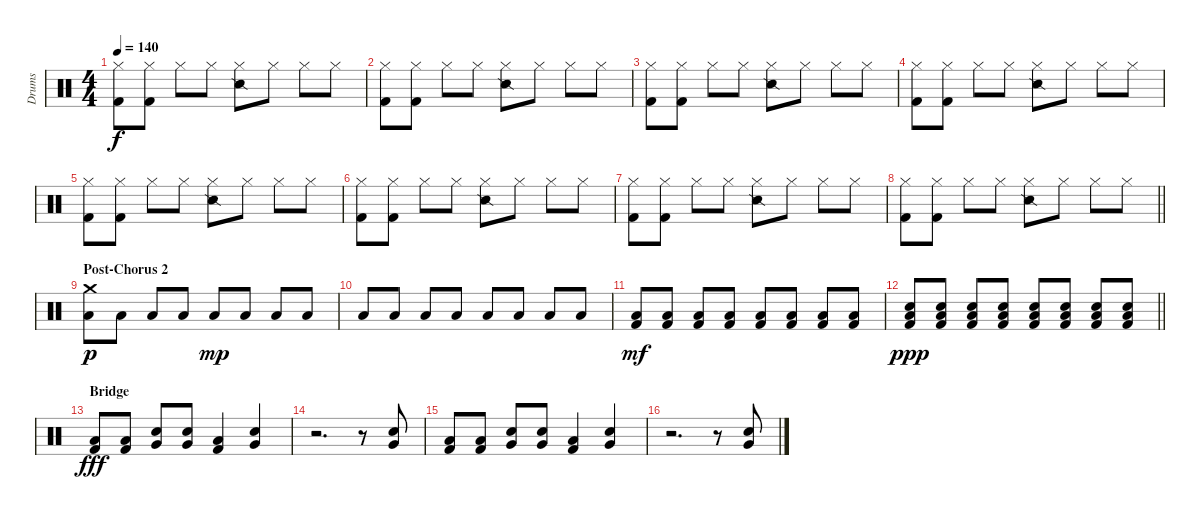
\track ("Drums" "Drums") {instrument percussion}
\staff {score}
\articulation defaults
\ts (4 4)
\tempo 140
\clef neutral
\ks c
("Hi-Hat (closed)" "Kick (hit) 2").8{dy f} ("Hi-Hat (closed)" "Kick (hit) 2").8 "Hi-Hat (closed)".8 "Hi-Hat (closed)".8 ("Hi-Hat (closed)" "Snare (side stick) 2").8 "Hi-Hat (closed)".8 "Hi-Hat (closed)".8 "Hi-Hat (closed)".8 |
("Hi-Hat (closed)" "Kick (hit) 2").8 ("Hi-Hat (closed)" "Kick (hit) 2").8 "Hi-Hat (closed)".8 "Hi-Hat (closed)".8 ("Hi-Hat (closed)" "Snare (side stick) 2").8 "Hi-Hat (closed)".8 "Hi-Hat (closed)".8 "Hi-Hat (closed)".8 |
("Hi-Hat (closed)" "Kick (hit) 2").8 ("Hi-Hat (closed)" "Kick (hit) 2").8 "Hi-Hat (closed)".8 "Hi-Hat (closed)".8 ("Hi-Hat (closed)" "Snare (side stick) 2").8 "Hi-Hat (closed)".8 "Hi-Hat (closed)".8 "Hi-Hat (closed)".8 |
("Hi-Hat (closed)" "Kick (hit) 2").8 ("Hi-Hat (closed)" "Kick (hit) 2").8 "Hi-Hat (closed)".8 "Hi-Hat (closed)".8 ("Hi-Hat (closed)" "Snare (side stick) 2").8 "Hi-Hat (closed)".8 "Hi-Hat (closed)".8 "Hi-Hat (closed)".8 |
("Hi-Hat (closed)" "Kick (hit) 2").8 ("Hi-Hat (closed)" "Kick (hit) 2").8 "Hi-Hat (closed)".8 "Hi-Hat (closed)".8 ("Hi-Hat (closed)" "Snare (side stick) 2").8 "Hi-Hat (closed)".8 "Hi-Hat (closed)".8 "Hi-Hat (closed)".8 |
("Hi-Hat (closed)" "Kick (hit) 2").8 ("Hi-Hat (closed)" "Kick (hit) 2").8 "Hi-Hat (closed)".8 "Hi-Hat (closed)".8 ("Hi-Hat (closed)" "Snare (side stick) 2").8 "Hi-Hat (closed)".8 "Hi-Hat (closed)".8 "Hi-Hat (closed)".8 |
("Hi-Hat (closed)" "Kick (hit) 2").8 ("Hi-Hat (closed)" "Kick (hit) 2").8 "Hi-Hat (closed)".8 "Hi-Hat (closed)".8 ("Hi-Hat (closed)" "Snare (side stick) 2").8 "Hi-Hat (closed)".8 "Hi-Hat (closed)".8 "Hi-Hat (closed)".8 |
\barLineRight lightlight
("Hi-Hat (closed)" "Kick (hit) 2").8 ("Hi-Hat (closed)" "Kick (hit) 2").8 "Hi-Hat (closed)".8 "Hi-Hat (closed)".8 ("Hi-Hat (closed)" "Snare (side stick) 2").8 "Hi-Hat (closed)".8 "Hi-Hat (closed)".8 "Hi-Hat (closed)".8 |
\section ("" "Post-Chorus 2")
("Crash medium (hit)" "Low Floor Tom (hit)").8{dy p} "Low Floor Tom (hit)".8 "Low Floor Tom (hit)".8 "Low Floor Tom (hit)".8 "Low Floor Tom (hit)".8{dy mp} "Low Floor Tom (hit)".8 "Low Floor Tom (hit)".8 "Low Floor Tom (hit)".8 |
"Low Floor Tom (hit)".8 "Low Floor Tom (hit)".8 "Low Floor Tom (hit)".8 "Low Floor Tom (hit)".8 "Low Floor Tom (hit)".8 "Low Floor Tom (hit)".8 "Low Floor Tom (hit)".8 "Low Floor Tom (hit)".8 |
("Low Floor Tom (hit)" "Kick (hit) 2").8{dy mf} ("Low Floor Tom (hit)" "Kick (hit) 2").8 ("Low Floor Tom (hit)" "Kick (hit) 2").8 ("Low Floor Tom (hit)" "Kick (hit) 2").8 ("Low Floor Tom (hit)" "Kick (hit) 2").8 ("Low Floor Tom (hit)" "Kick (hit) 2").8 ("Low Floor Tom (hit)" "Kick (hit) 2").8 ("Low Floor Tom (hit)" "Kick (hit) 2").8 |
\barLineRight lightlight
("Electric Snare (hit)" "Low Floor Tom (hit)" "Kick (hit) 2").8{dy ppp} ("Electric Snare (hit)" "Low Floor Tom (hit)" "Kick (hit) 2").8 ("Electric Snare (hit)" "Low Floor Tom (hit)" "Kick (hit) 2").8 ("Electric Snare (hit)" "Low Floor Tom (hit)" "Kick (hit) 2").8 ("Electric Snare (hit)" "Low Floor Tom (hit)" "Kick (hit) 2").8 ("Electric Snare (hit)" "Low Floor Tom (hit)" "Kick (hit) 2").8 ("Electric Snare (hit)" "Low Floor Tom (hit)" "Kick (hit) 2").8 ("Electric Snare (hit)" "Low Floor Tom (hit)" "Kick (hit) 2").8 |
\section ("" "Bridge")
("Low Floor Tom (hit)" "Kick (hit) 2").8{dy fff} ("Low Floor Tom (hit)" "Kick (hit) 2").8 ("Very Low Tom (hit)" "Electric Snare (hit)").8 ("Very Low Tom (hit)" "Electric Snare (hit)").8 ("Low Floor Tom (hit)" "Kick (hit) 2").4 ("Very Low Tom (hit)" "Electric Snare (hit)").4 |
r.2{d} r.8 ("Very Low Tom (hit)" "Electric Snare (hit)").8 |
("Low Floor Tom (hit)" "Kick (hit) 2").8 ("Low Floor Tom (hit)" "Kick (hit) 2").8 ("Very Low Tom (hit)" "Electric Snare (hit)").8 ("Very Low Tom (hit)" "Electric Snare (hit)").8 ("Low Floor Tom (hit)" "Kick (hit) 2").4 ("Very Low Tom (hit)" "Electric Snare (hit)").4 |
r.2{d} r.8 ("Very Low Tom (hit)" "Electric Snare (hit)").8
